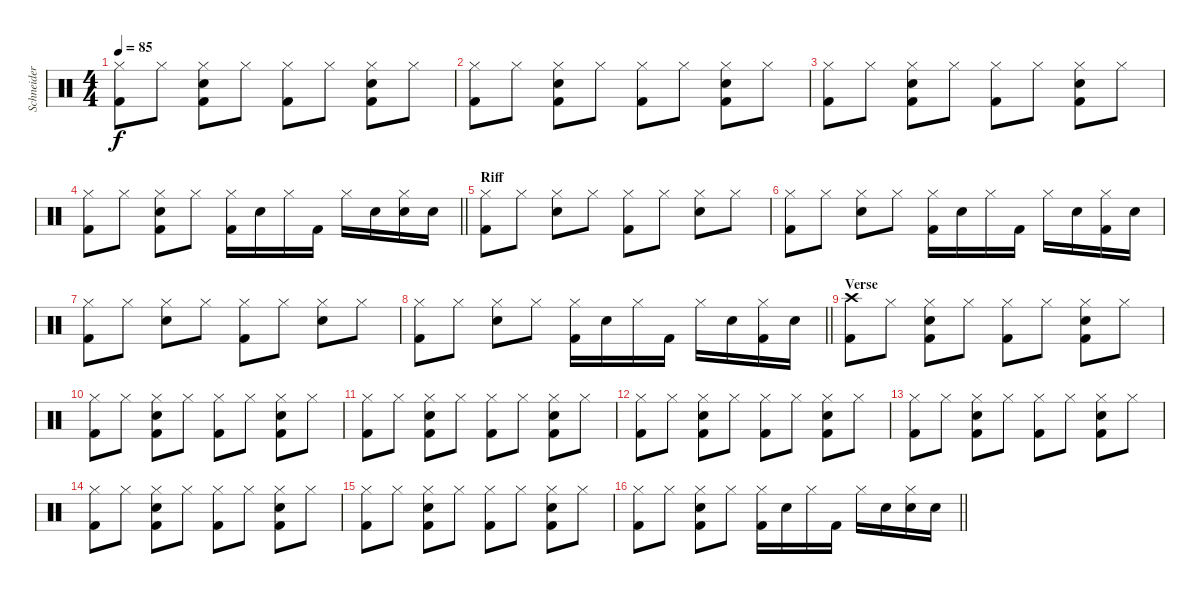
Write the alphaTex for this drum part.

\track ("Schneider" "Schneider") {instrument percussion}
\staff {score}
\articulation defaults
\ts (4 4)
\tempo 85
\clef neutral
\ks c
("Hi-Hat (closed)" "Kick (hit) 2").8{dy f} "Hi-Hat (closed)".8 ("Hi-Hat (closed)" "Electric Snare (hit)" "Kick (hit) 2").8 "Hi-Hat (closed)".8 ("Hi-Hat (closed)" "Kick (hit) 2").8 "Hi-Hat (closed)".8 ("Hi-Hat (closed)" "Electric Snare (hit)" "Kick (hit) 2").8 "Hi-Hat (closed)".8 |
("Hi-Hat (closed)" "Kick (hit) 2").8 "Hi-Hat (closed)".8 ("Hi-Hat (closed)" "Electric Snare (hit)" "Kick (hit) 2").8 "Hi-Hat (closed)".8 ("Hi-Hat (closed)" "Kick (hit) 2").8 "Hi-Hat (closed)".8 ("Hi-Hat (closed)" "Electric Snare (hit)" "Kick (hit) 2").8 "Hi-Hat (closed)".8 |
("Hi-Hat (closed)" "Kick (hit) 2").8 "Hi-Hat (closed)".8 ("Hi-Hat (closed)" "Electric Snare (hit)" "Kick (hit) 2").8 "Hi-Hat (closed)".8 ("Hi-Hat (closed)" "Kick (hit) 2").8 "Hi-Hat (closed)".8 ("Hi-Hat (closed)" "Electric Snare (hit)" "Kick (hit) 2").8 "Hi-Hat (closed)".8 |
\barLineRight lightlight
("Hi-Hat (closed)" "Kick (hit) 2").8 "Hi-Hat (closed)".8 ("Hi-Hat (closed)" "Electric Snare (hit)" "Kick (hit) 2").8 "Hi-Hat (closed)".8 ("Hi-Hat (closed)" "Kick (hit) 2").16 "Electric Snare (hit)".16 "Hi-Hat (closed)".16 "Kick (hit) 2".16 "Hi-Hat (closed)".16 "Electric Snare (hit)".16 ("Hi-Hat (closed)" "Electric Snare (hit)").16 "Electric Snare (hit)".16 |
\section ("" "Riff")
("Hi-Hat (closed)" "Kick (hit) 2").8 "Hi-Hat (closed)".8 ("Hi-Hat (closed)" "Electric Snare (hit)").8 "Hi-Hat (closed)".8 ("Hi-Hat (closed)" "Kick (hit) 2").8 "Hi-Hat (closed)".8 ("Hi-Hat (closed)" "Electric Snare (hit)").8 "Hi-Hat (closed)".8 |
("Hi-Hat (closed)" "Kick (hit) 2").8 "Hi-Hat (closed)".8 ("Hi-Hat (closed)" "Electric Snare (hit)").8 "Hi-Hat (closed)".8 ("Hi-Hat (closed)" "Kick (hit) 2").16 "Electric Snare (hit)".16 "Hi-Hat (closed)".16 "Kick (hit) 2".16 "Hi-Hat (closed)".16 "Electric Snare (hit)".16 ("Hi-Hat (closed)" "Kick (hit) 2").16 "Electric Snare (hit)".16 |
("Hi-Hat (closed)" "Kick (hit) 2").8 "Hi-Hat (closed)".8 ("Hi-Hat (closed)" "Electric Snare (hit)").8 "Hi-Hat (closed)".8 ("Hi-Hat (closed)" "Kick (hit) 2").8 "Hi-Hat (closed)".8 ("Hi-Hat (closed)" "Electric Snare (hit)").8 "Hi-Hat (closed)".8 |
\barLineRight lightlight
("Hi-Hat (closed)" "Kick (hit) 2").8 "Hi-Hat (closed)".8 ("Hi-Hat (closed)" "Electric Snare (hit)").8 "Hi-Hat (closed)".8 ("Hi-Hat (closed)" "Kick (hit) 2").16 "Electric Snare (hit)".16 "Hi-Hat (closed)".16 "Kick (hit) 2".16 "Hi-Hat (closed)".16 "Electric Snare (hit)".16 ("Hi-Hat (closed)" "Kick (hit) 2").16 "Electric Snare (hit)".16 |
\section ("" "Verse")
("Crash high (hit)" "Kick (hit) 2").8 "Hi-Hat (closed)".8 ("Hi-Hat (closed)" "Electric Snare (hit)" "Kick (hit) 2").8 "Hi-Hat (closed)".8 ("Hi-Hat (closed)" "Kick (hit) 2").8 "Hi-Hat (closed)".8 ("Hi-Hat (closed)" "Electric Snare (hit)" "Kick (hit) 2").8 "Hi-Hat (closed)".8 |
("Hi-Hat (closed)" "Kick (hit) 2").8 "Hi-Hat (closed)".8 ("Hi-Hat (closed)" "Electric Snare (hit)" "Kick (hit) 2").8 "Hi-Hat (closed)".8 ("Hi-Hat (closed)" "Kick (hit) 2").8 "Hi-Hat (closed)".8 ("Hi-Hat (closed)" "Electric Snare (hit)" "Kick (hit) 2").8 "Hi-Hat (closed)".8 |
("Hi-Hat (closed)" "Kick (hit) 2").8 "Hi-Hat (closed)".8 ("Hi-Hat (closed)" "Electric Snare (hit)" "Kick (hit) 2").8 "Hi-Hat (closed)".8 ("Hi-Hat (closed)" "Kick (hit) 2").8 "Hi-Hat (closed)".8 ("Hi-Hat (closed)" "Electric Snare (hit)" "Kick (hit) 2").8 "Hi-Hat (closed)".8 |
("Hi-Hat (closed)" "Kick (hit) 2").8 "Hi-Hat (closed)".8 ("Hi-Hat (closed)" "Electric Snare (hit)" "Kick (hit) 2").8 "Hi-Hat (closed)".8 ("Hi-Hat (closed)" "Kick (hit) 2").8 "Hi-Hat (closed)".8 ("Hi-Hat (closed)" "Electric Snare (hit)" "Kick (hit) 2").8 "Hi-Hat (closed)".8 |
("Hi-Hat (closed)" "Kick (hit) 2").8 "Hi-Hat (closed)".8 ("Hi-Hat (closed)" "Electric Snare (hit)" "Kick (hit) 2").8 "Hi-Hat (closed)".8 ("Hi-Hat (closed)" "Kick (hit) 2").8 "Hi-Hat (closed)".8 ("Hi-Hat (closed)" "Electric Snare (hit)" "Kick (hit) 2").8 "Hi-Hat (closed)".8 |
("Hi-Hat (closed)" "Kick (hit) 2").8 "Hi-Hat (closed)".8 ("Hi-Hat (closed)" "Electric Snare (hit)" "Kick (hit) 2").8 "Hi-Hat (closed)".8 ("Hi-Hat (closed)" "Kick (hit) 2").8 "Hi-Hat (closed)".8 ("Hi-Hat (closed)" "Electric Snare (hit)" "Kick (hit) 2").8 "Hi-Hat (closed)".8 |
("Hi-Hat (closed)" "Kick (hit) 2").8 "Hi-Hat (closed)".8 ("Hi-Hat (closed)" "Electric Snare (hit)" "Kick (hit) 2").8 "Hi-Hat (closed)".8 ("Hi-Hat (closed)" "Kick (hit) 2").8 "Hi-Hat (closed)".8 ("Hi-Hat (closed)" "Electric Snare (hit)" "Kick (hit) 2").8 "Hi-Hat (closed)".8 |
\barLineRight lightlight
("Hi-Hat (closed)" "Kick (hit) 2").8 "Hi-Hat (closed)".8 ("Hi-Hat (closed)" "Electric Snare (hit)" "Kick (hit) 2").8 "Hi-Hat (closed)".8 ("Hi-Hat (closed)" "Kick (hit) 2").16 "Electric Snare (hit)".16 "Hi-Hat (closed)".16 "Kick (hit) 2".16 "Hi-Hat (closed)".16 "Electric Snare (hit)".16 ("Hi-Hat (closed)" "Electric Snare (hit)").16 "Electric Snare (hit)".16
